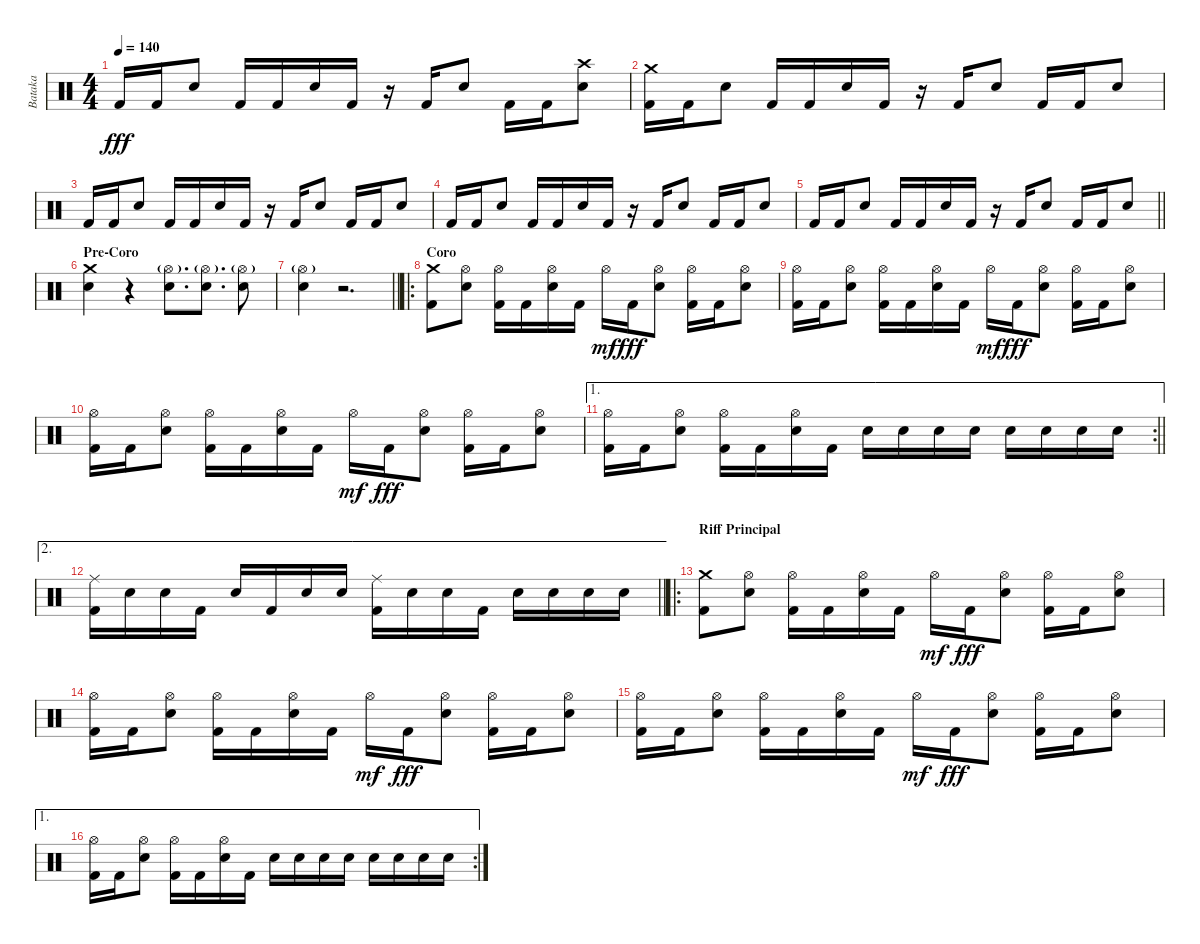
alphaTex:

\track ("Bataka" "Bataka") {instrument percussion}
\staff {score}
\articulation defaults
\ts (4 4)
\tempo 140
\clef neutral
\ks c "Kick (hit) 2".16{dy fff} "Kick (hit) 2".16 "Electric Snare (hit)".8 "Kick (hit) 2".16 "Kick (hit) 2".16 "Electric Snare (hit)".16 "Kick (hit) 2".16
r.16 "Kick (hit) 2".16 "Electric Snare (hit)".8 "Kick (hit) 2".16 "Kick (hit) 2".16 ("Crash high (hit)" "Electric Snare (hit)").8 |
("Crash medium (hit)" "Kick (hit) 2").16 "Kick (hit) 2".16 "Electric Snare (hit)".8 "Kick (hit) 2".16 "Kick (hit) 2".16 "Electric Snare (hit)".16 "Kick (hit) 2".16 r.16 "Kick (hit) 2".16 "Electric Snare (hit)".8 "Kick (hit) 2".16 "Kick (hit) 2".16 "Electric Snare (hit)".8 |
"Kick (hit) 2".16 "Kick (hit) 2".16 "Electric Snare (hit)".8 "Kick (hit) 2".16 "Kick (hit) 2".16 "Electric Snare (hit)".16 "Kick (hit) 2".16 r.16 "Kick (hit) 2".16 "Electric Snare (hit)".8 "Kick (hit) 2".16 "Kick (hit) 2".16 "Electric Snare (hit)".8 |
"Kick (hit) 2".16 "Kick (hit) 2".16 "Electric Snare (hit)".8 "Kick (hit) 2".16 "Kick (hit) 2".16 "Electric Snare (hit)".16 "Kick (hit) 2".16 r.16 "Kick (hit) 2".16 "Electric Snare (hit)".8 "Kick (hit) 2".16 "Kick (hit) 2".16 "Electric Snare (hit)".8 |
\barLineRight lightlight "Kick (hit) 2".16 "Kick (hit) 2".16 "Electric Snare (hit)".8 "Kick (hit) 2".16 "Kick (hit) 2".16 "Electric Snare (hit)".16 "Kick (hit) 2".16
r.16 "Kick (hit) 2".16 "Electric Snare (hit)".8 "Kick (hit) 2".16 "Kick (hit) 2".16 "Electric Snare (hit)".8 |
\section ("" "Pre-Coro")
("Crash medium (hit)" "Electric Snare (hit)").4 r.4 ("Hi-Hat (open)"{g} "Electric Snare (hit)").8{d} ("Hi-Hat (open)"{g} "Electric Snare (hit)").8{d} ("Hi-Hat (open)"{g} "Electric Snare (hit)").8 |
\barLineRight lightlight
("Hi-Hat (open)"{g} "Electric Snare (hit)").4 r.2{d} |
\ro
\section ("" "Coro")
("Crash medium (hit)" "Kick (hit) 2").8 ("Hi-Hat (open)" "Electric Snare (hit)").8 ("Hi-Hat (open)" "Kick (hit) 2").16 "Kick (hit) 2".16 ("Hi-Hat (open)" "Electric Snare (hit)").16 "Kick (hit) 2".16 "Hi-Hat (open)".16{dy mf} "Kick (hit) 2".16{dy fff} ("Hi-Hat (open)" "Electric Snare (hit)").8 ("Hi-Hat (open)" "Kick (hit) 2").16 "Kick (hit) 2".16 ("Hi-Hat (open)" "Electric Snare (hit)").8 |
("Hi-Hat (open)" "Kick (hit) 2").16 "Kick (hit) 2".16 ("Hi-Hat (open)" "Electric Snare (hit)").8 ("Hi-Hat (open)" "Kick (hit) 2").16 "Kick (hit) 2".16 ("Hi-Hat (open)" "Electric Snare (hit)").16 "Kick (hit) 2".16 "Hi-Hat (open)".16{dy mf} "Kick (hit) 2".16{dy fff} ("Hi-Hat (open)" "Electric Snare (hit)").8 ("Hi-Hat (open)" "Kick (hit) 2").16 "Kick (hit) 2".16 ("Hi-Hat (open)" "Electric Snare (hit)").8 |
("Hi-Hat (open)" "Kick (hit) 2").16 "Kick (hit) 2".16 ("Hi-Hat (open)" "Electric Snare (hit)").8 ("Hi-Hat (open)" "Kick (hit) 2").16 "Kick (hit) 2".16 ("Hi-Hat (open)" "Electric Snare (hit)").16 "Kick (hit) 2".16 "Hi-Hat (open)".16{dy mf} "Kick (hit) 2".16{dy fff} ("Hi-Hat (open)" "Electric Snare (hit)").8 ("Hi-Hat (open)" "Kick (hit) 2").16 "Kick (hit) 2".16 ("Hi-Hat (open)" "Electric Snare (hit)").8 |
\ae 1
\rc 2
\barLineRight lightlight
("Hi-Hat (open)" "Kick (hit) 2").16 "Kick (hit) 2".16 ("Hi-Hat (open)" "Electric Snare (hit)").8 ("Hi-Hat (open)" "Kick (hit) 2").16 "Kick (hit) 2".16 ("Hi-Hat (open)" "Electric Snare (hit)").16 "Kick (hit) 2".16 "Electric Snare (hit)".16 "Electric Snare (hit)".16 "Electric Snare (hit)".16 "Electric Snare (hit)".16 "Electric Snare (hit)".16 "Electric Snare (hit)".16 "Electric Snare (hit)".16 "Electric Snare (hit)".16 |
\ae 2
\barLineRight lightlight
("Ride (middle)" "Kick (hit) 2").16 "Electric Snare (hit)".16 "Electric Snare (hit)".16 "Kick (hit) 2".16 "Electric Snare (hit)".16 "Kick (hit) 2".16 "Electric Snare (hit)".16 "Electric Snare (hit)".16 ("Ride (middle)" "Kick (hit) 2").16 "Electric Snare (hit)".16 "Electric Snare (hit)".16 "Kick (hit) 2".16 "Electric Snare (hit)".16 "Electric Snare (hit)".16 "Electric Snare (hit)".16 "Electric Snare (hit)".16 |
\ro
\section ("" "Riff Principal")
("Crash medium (hit)" "Kick (hit) 2").8 ("Hi-Hat (open)" "Electric Snare (hit)").8 ("Hi-Hat (open)" "Kick (hit) 2").16 "Kick (hit) 2".16 ("Hi-Hat (open)" "Electric Snare (hit)").16 "Kick (hit) 2".16 "Hi-Hat (open)".16{dy mf} "Kick (hit) 2".16{dy fff} ("Hi-Hat (open)" "Electric Snare (hit)").8 ("Hi-Hat (open)" "Kick (hit) 2").16 "Kick (hit) 2".16 ("Hi-Hat (open)" "Electric Snare (hit)").8 |
("Hi-Hat (open)" "Kick (hit) 2").16 "Kick (hit) 2".16 ("Hi-Hat (open)" "Electric Snare (hit)").8 ("Hi-Hat (open)" "Kick (hit) 2").16 "Kick (hit) 2".16 ("Hi-Hat (open)" "Electric Snare (hit)").16 "Kick (hit) 2".16 "Hi-Hat (open)".16{dy mf} "Kick (hit) 2".16{dy fff} ("Hi-Hat (open)" "Electric Snare (hit)").8 ("Hi-Hat (open)" "Kick (hit) 2").16 "Kick (hit) 2".16 ("Hi-Hat (open)" "Electric Snare (hit)").8 |
("Hi-Hat (open)" "Kick (hit) 2").16 "Kick (hit) 2".16 ("Hi-Hat (open)" "Electric Snare (hit)").8 ("Hi-Hat (open)" "Kick (hit) 2").16 "Kick (hit) 2".16 ("Hi-Hat (open)" "Electric Snare (hit)").16 "Kick (hit) 2".16 "Hi-Hat (open)".16{dy mf} "Kick (hit) 2".16{dy fff} ("Hi-Hat (open)" "Electric Snare (hit)").8 ("Hi-Hat (open)" "Kick (hit) 2").16 "Kick (hit) 2".16 ("Hi-Hat (open)" "Electric Snare (hit)").8 |
\ae 1
\rc 2
("Hi-Hat (open)" "Kick (hit) 2").16 "Kick (hit) 2".16 ("Hi-Hat (open)" "Electric Snare (hit)").8 ("Hi-Hat (open)" "Kick (hit) 2").16 "Kick (hit) 2".16 ("Hi-Hat (open)" "Electric Snare (hit)").16 "Kick (hit) 2".16 "Electric Snare (hit)".16 "Electric Snare (hit)".16 "Electric Snare (hit)".16 "Electric Snare (hit)".16 "Electric Snare (hit)".16 "Electric Snare (hit)".16 "Electric Snare (hit)".16 "Electric Snare (hit)".16
